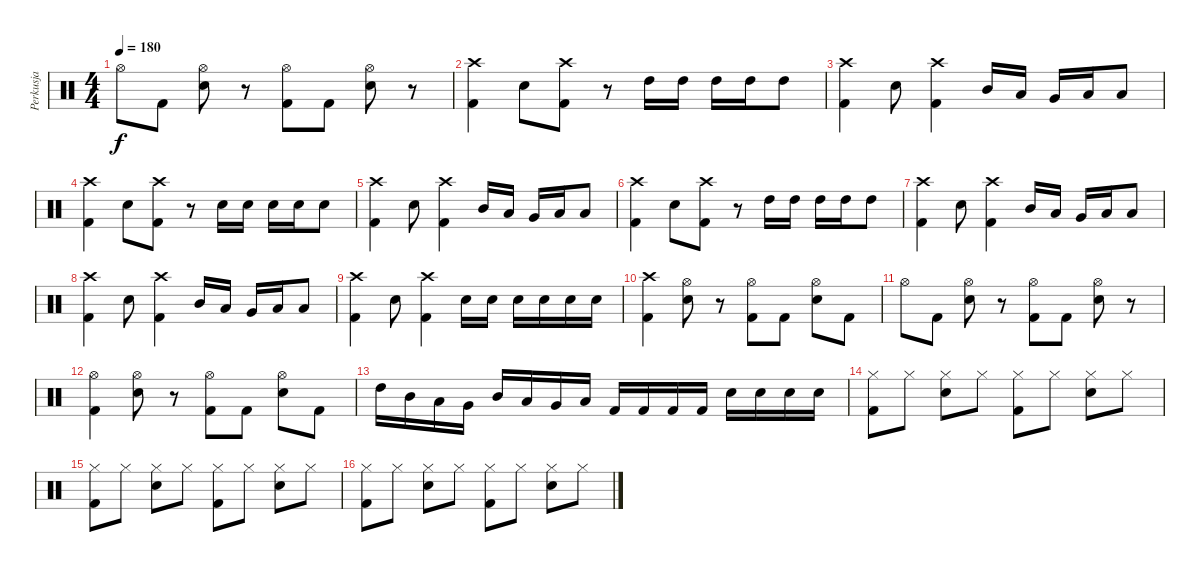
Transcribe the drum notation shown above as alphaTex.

\track ("Perkusja" "Perkusja") {instrument percussion}
\staff {score}
\articulation defaults
\ts (4 4)
\tempo 180
\clef neutral
\ks c "Hi-Hat (open)".8{dy f} "Kick (hit) 2".8
("Hi-Hat (open)" "Electric Snare (hit)").8 r.8 ("Hi-Hat (open)" "Kick (hit) 2").8 "Kick (hit) 2".8 ("Hi-Hat (open)" "Electric Snare (hit)").8 r.8 |
("Crash high (hit)" "Kick (hit) 2").4 "Electric Snare (hit)".8 ("Crash high (hit)" "Kick (hit) 2").8 r.8 "High Tom (hit)".16 "High Tom (hit)".16 "High Tom (hit)".16 "High Tom (hit)".16 "High Tom (hit)".8 |
("Crash high (hit)" "Kick (hit) 2").4 "Electric Snare (hit)".8 ("Crash high (hit)" "Kick (hit) 2").4 "Mid Tom (hit)".16 "Low Tom (hit)".16 "Very Low Tom (hit)".16 "Low Floor Tom (hit)".16 "Low Floor Tom (hit)".8 |
("Crash high (hit)" "Kick (hit) 2").4 "Electric Snare (hit)".8 ("Crash high (hit)" "Kick (hit) 2").8 r.8 "Electric Snare (hit)".16 "Electric Snare (hit)".16 "Electric Snare (hit)".16 "Electric Snare (hit)".16 "Electric Snare (hit)".8 |
("Crash high (hit)" "Kick (hit) 2").4 "Electric Snare (hit)".8 ("Crash high (hit)" "Kick (hit) 2").4 "Mid Tom (hit)".16 "Low Tom (hit)".16 "Very Low Tom (hit)".16 "Low Floor Tom (hit)".16 "Low Floor Tom (hit)".8 |
("Crash high (hit)" "Kick (hit) 2").4 "Electric Snare (hit)".8 ("Crash high (hit)" "Kick (hit) 2").8 r.8 "High Tom (hit)".16 "High Tom (hit)".16 "High Tom (hit)".16 "High Tom (hit)".16 "High Tom (hit)".8 |
("Crash high (hit)" "Kick (hit) 2").4 "Electric Snare (hit)".8 ("Crash high (hit)" "Kick (hit) 2").4 "Mid Tom (hit)".16 "Low Tom (hit)".16 "Very Low Tom (hit)".16 "Low Floor Tom (hit)".16 "Low Floor Tom (hit)".8 |
("Crash high (hit)" "Kick (hit) 2").4 "Electric Snare (hit)".8 ("Crash high (hit)" "Kick (hit) 2").4 "Mid Tom (hit)".16 "Low Tom (hit)".16 "Very Low Tom (hit)".16 "Low Floor Tom (hit)".16 "Low Floor Tom (hit)".8 |
("Crash high (hit)" "Kick (hit) 2").4 "Electric Snare (hit)".8 ("Crash high (hit)" "Kick (hit) 2").4 "Electric Snare (hit)".16 "Electric Snare (hit)".16 "Electric Snare (hit)".16 "Electric Snare (hit)".16 "Electric Snare (hit)".16 "Electric Snare (hit)".16 |
("Crash high (hit)" "Kick (hit) 2").4 ("Hi-Hat (open)" "Electric Snare (hit)").8 r.8 ("Hi-Hat (open)" "Kick (hit) 2").8 "Kick (hit) 2".8 ("Hi-Hat (open)" "Electric Snare (hit)").8 "Kick (hit) 2".8 |
"Hi-Hat (open)".8 "Kick (hit) 2".8 ("Hi-Hat (open)" "Electric Snare (hit)").8 r.8 ("Hi-Hat (open)" "Kick (hit) 2").8 "Kick (hit) 2".8 ("Hi-Hat (open)" "Electric Snare (hit)").8 r.8 |
("Hi-Hat (open)" "Kick (hit) 2").4 ("Hi-Hat (open)" "Electric Snare (hit)").8 r.8 ("Hi-Hat (open)" "Kick (hit) 2").8 "Kick (hit) 2".8 ("Hi-Hat (open)" "Electric Snare (hit)").8 "Kick (hit) 2".8 |
"High Tom (hit)".16 "Mid Tom (hit)".16 "Low Tom (hit)".16 "Very Low Tom (hit)".16 "Mid Tom (hit)".16 "Low Tom (hit)".16 "Very Low Tom (hit)".16 "Low Floor Tom (hit)".16 "Kick (hit) 2".16 "Kick (hit) 2".16 "Kick (hit) 2".16 "Kick (hit) 2".16 "Electric Snare (hit)".16 "Electric Snare (hit)".16 "Electric Snare (hit)".16 "Electric Snare (hit)".16 |
("Hi-Hat (closed)" "Kick (hit) 2").8 "Hi-Hat (closed)".8 ("Hi-Hat (closed)" "Electric Snare (hit)").8 "Hi-Hat (closed)".8 ("Hi-Hat (closed)" "Kick (hit) 2").8 "Hi-Hat (closed)".8 ("Hi-Hat (closed)" "Electric Snare (hit)").8 "Hi-Hat (closed)".8 |
("Hi-Hat (closed)" "Kick (hit) 2").8 "Hi-Hat (closed)".8 ("Hi-Hat (closed)" "Electric Snare (hit)").8 "Hi-Hat (closed)".8 ("Hi-Hat (closed)" "Kick (hit) 2").8 "Hi-Hat (closed)".8 ("Hi-Hat (closed)" "Electric Snare (hit)").8 "Hi-Hat (closed)".8 |
("Hi-Hat (closed)" "Kick (hit) 2").8 "Hi-Hat (closed)".8 ("Hi-Hat (closed)" "Electric Snare (hit)").8 "Hi-Hat (closed)".8 ("Hi-Hat (closed)" "Kick (hit) 2").8 "Hi-Hat (closed)".8 ("Hi-Hat (closed)" "Electric Snare (hit)").8 "Hi-Hat (closed)".8
